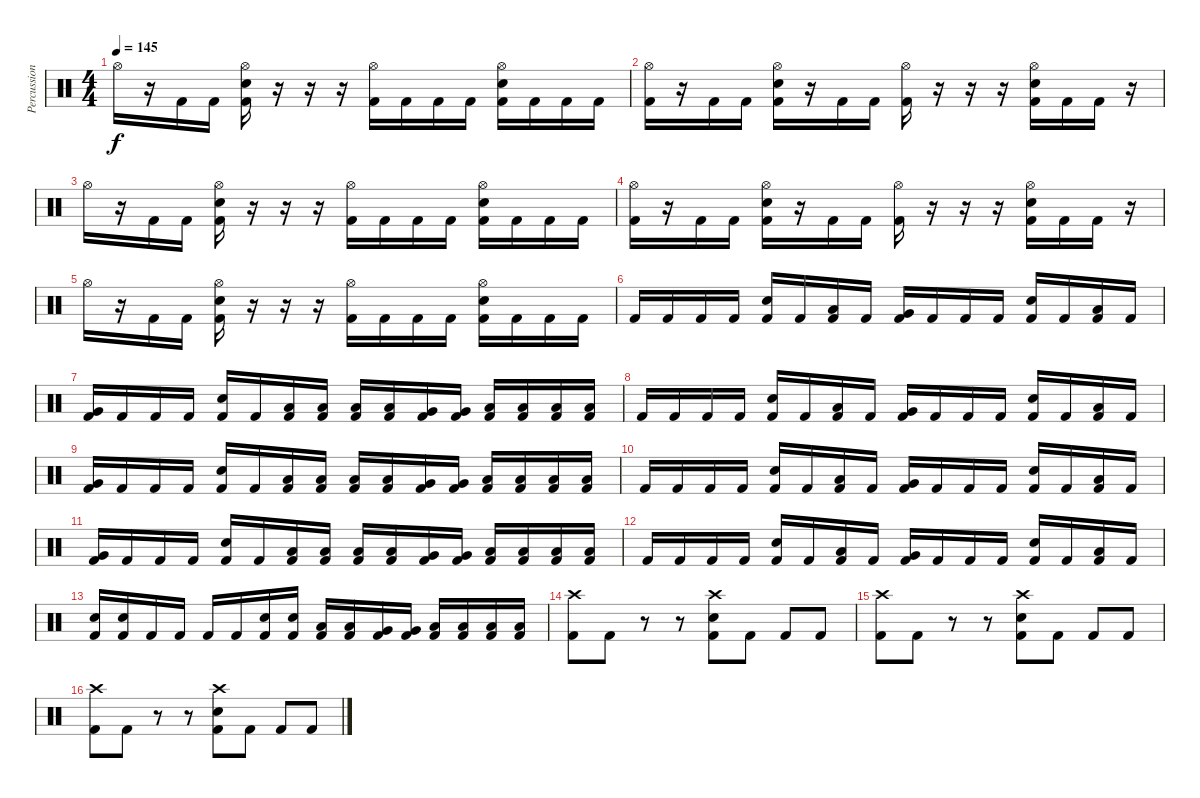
\track ("Percussion" "Percussion") {instrument percussion}
\staff {score}
\articulation defaults
\ts (4 4)
\tempo 145
\clef neutral
\ks c "Hi-Hat (open)".16{dy f}
r.16 "Kick (hit) 2".16 "Kick (hit) 2".16 ("Hi-Hat (open)" "Electric Snare (hit)" "Kick (hit) 2").16 r.16 r.16 r.16 ("Hi-Hat (open)" "Kick (hit) 2").16 "Kick (hit) 2".16 "Kick (hit) 2".16 "Kick (hit) 2".16 ("Hi-Hat (open)" "Electric Snare (hit)" "Kick (hit) 2").16 "Kick (hit) 2".16 "Kick (hit) 2".16 "Kick (hit) 2".16 |
("Hi-Hat (open)" "Kick (hit) 2").16 r.16 "Kick (hit) 2".16 "Kick (hit) 2".16 ("Hi-Hat (open)" "Electric Snare (hit)" "Kick (hit) 2").16 r.16 "Kick (hit) 2".16 "Kick (hit) 2".16 ("Hi-Hat (open)" "Kick (hit) 2").16 r.16 r.16 r.16 ("Hi-Hat (open)" "Electric Snare (hit)" "Kick (hit) 2").16 "Kick (hit) 2".16 "Kick (hit) 2".16 r.16 |
"Hi-Hat (open)".16 r.16 "Kick (hit) 2".16 "Kick (hit) 2".16 ("Hi-Hat (open)" "Electric Snare (hit)" "Kick (hit) 2").16 r.16 r.16 r.16 ("Hi-Hat (open)" "Kick (hit) 2").16 "Kick (hit) 2".16 "Kick (hit) 2".16 "Kick (hit) 2".16 ("Hi-Hat (open)" "Electric Snare (hit)" "Kick (hit) 2").16 "Kick (hit) 2".16 "Kick (hit) 2".16 "Kick (hit) 2".16 |
("Hi-Hat (open)" "Kick (hit) 2").16 r.16 "Kick (hit) 2".16 "Kick (hit) 2".16 ("Hi-Hat (open)" "Electric Snare (hit)" "Kick (hit) 2").16 r.16 "Kick (hit) 2".16 "Kick (hit) 2".16 ("Hi-Hat (open)" "Kick (hit) 2").16 r.16 r.16 r.16 ("Hi-Hat (open)" "Electric Snare (hit)" "Kick (hit) 2").16 "Kick (hit) 2".16 "Kick (hit) 2".16 r.16 |
"Hi-Hat (open)".16 r.16 "Kick (hit) 2".16 "Kick (hit) 2".16 ("Hi-Hat (open)" "Electric Snare (hit)" "Kick (hit) 2").16 r.16 r.16 r.16 ("Hi-Hat (open)" "Kick (hit) 2").16 "Kick (hit) 2".16 "Kick (hit) 2".16 "Kick (hit) 2".16 ("Hi-Hat (open)" "Electric Snare (hit)" "Kick (hit) 2").16 "Kick (hit) 2".16 "Kick (hit) 2".16 "Kick (hit) 2".16 |
"Kick (hit) 2".16 "Kick (hit) 2".16 "Kick (hit) 2".16 "Kick (hit) 2".16 ("Electric Snare (hit)" "Kick (hit) 2").16 "Kick (hit) 2".16 ("Low Tom (hit)" "Kick (hit) 2").16 "Kick (hit) 2".16 ("Very Low Tom (hit)" "Kick (hit) 2").16 "Kick (hit) 2".16 "Kick (hit) 2".16 "Kick (hit) 2".16 ("Electric Snare (hit)" "Kick (hit) 2").16 "Kick (hit) 2".16 ("Low Tom (hit)" "Kick (hit) 2").16 "Kick (hit) 2".16 |
("Very Low Tom (hit)" "Kick (hit) 2").16 "Kick (hit) 2".16 "Kick (hit) 2".16 "Kick (hit) 2".16 ("Electric Snare (hit)" "Kick (hit) 2").16 "Kick (hit) 2".16 ("Low Tom (hit)" "Kick (hit) 2").16 ("Low Tom (hit)" "Kick (hit) 2").16 ("Low Tom (hit)" "Kick (hit) 2").16 ("Low Tom (hit)" "Kick (hit) 2").16 ("Very Low Tom (hit)" "Kick (hit) 2").16 ("Very Low Tom (hit)" "Kick (hit) 2").16 ("Low Floor Tom (hit)" "Kick (hit) 2").16 ("Low Floor Tom (hit)" "Kick (hit) 2").16 ("Low Floor Tom (hit)" "Kick (hit) 2").16 ("Low Floor Tom (hit)" "Kick (hit) 2").16 |
"Kick (hit) 2".16 "Kick (hit) 2".16 "Kick (hit) 2".16 "Kick (hit) 2".16 ("Electric Snare (hit)" "Kick (hit) 2").16 "Kick (hit) 2".16 ("Low Tom (hit)" "Kick (hit) 2").16 "Kick (hit) 2".16 ("Very Low Tom (hit)" "Kick (hit) 2").16 "Kick (hit) 2".16 "Kick (hit) 2".16 "Kick (hit) 2".16 ("Electric Snare (hit)" "Kick (hit) 2").16 "Kick (hit) 2".16 ("Low Tom (hit)" "Kick (hit) 2").16 "Kick (hit) 2".16 |
("Very Low Tom (hit)" "Kick (hit) 2").16 "Kick (hit) 2".16 "Kick (hit) 2".16 "Kick (hit) 2".16 ("Electric Snare (hit)" "Kick (hit) 2").16 "Kick (hit) 2".16 ("Low Tom (hit)" "Kick (hit) 2").16 ("Low Tom (hit)" "Kick (hit) 2").16 ("Low Tom (hit)" "Kick (hit) 2").16 ("Low Tom (hit)" "Kick (hit) 2").16 ("Very Low Tom (hit)" "Kick (hit) 2").16 ("Very Low Tom (hit)" "Kick (hit) 2").16 ("Low Floor Tom (hit)" "Kick (hit) 2").16 ("Low Floor Tom (hit)" "Kick (hit) 2").16 ("Low Floor Tom (hit)" "Kick (hit) 2").16 ("Low Floor Tom (hit)" "Kick (hit) 2").16 |
"Kick (hit) 2".16 "Kick (hit) 2".16 "Kick (hit) 2".16 "Kick (hit) 2".16 ("Electric Snare (hit)" "Kick (hit) 2").16 "Kick (hit) 2".16 ("Low Tom (hit)" "Kick (hit) 2").16 "Kick (hit) 2".16 ("Very Low Tom (hit)" "Kick (hit) 2").16 "Kick (hit) 2".16 "Kick (hit) 2".16 "Kick (hit) 2".16 ("Electric Snare (hit)" "Kick (hit) 2").16 "Kick (hit) 2".16 ("Low Tom (hit)" "Kick (hit) 2").16 "Kick (hit) 2".16 |
("Very Low Tom (hit)" "Kick (hit) 2").16 "Kick (hit) 2".16 "Kick (hit) 2".16 "Kick (hit) 2".16 ("Electric Snare (hit)" "Kick (hit) 2").16 "Kick (hit) 2".16 ("Low Tom (hit)" "Kick (hit) 2").16 ("Low Tom (hit)" "Kick (hit) 2").16 ("Low Tom (hit)" "Kick (hit) 2").16 ("Low Tom (hit)" "Kick (hit) 2").16 ("Very Low Tom (hit)" "Kick (hit) 2").16 ("Very Low Tom (hit)" "Kick (hit) 2").16 ("Low Floor Tom (hit)" "Kick (hit) 2").16 ("Low Floor Tom (hit)" "Kick (hit) 2").16 ("Low Floor Tom (hit)" "Kick (hit) 2").16 ("Low Floor Tom (hit)" "Kick (hit) 2").16 |
"Kick (hit) 2".16 "Kick (hit) 2".16 "Kick (hit) 2".16 "Kick (hit) 2".16 ("Electric Snare (hit)" "Kick (hit) 2").16 "Kick (hit) 2".16 ("Low Tom (hit)" "Kick (hit) 2").16 "Kick (hit) 2".16 ("Very Low Tom (hit)" "Kick (hit) 2").16 "Kick (hit) 2".16 "Kick (hit) 2".16 "Kick (hit) 2".16 ("Electric Snare (hit)" "Kick (hit) 2").16 "Kick (hit) 2".16 ("Low Tom (hit)" "Kick (hit) 2").16 "Kick (hit) 2".16 |
("Electric Snare (hit)" "Kick (hit) 2").16 ("Electric Snare (hit)" "Kick (hit) 2").16 "Kick (hit) 2".16 "Kick (hit) 2".16 "Kick (hit) 2".16 "Kick (hit) 2".16 ("Electric Snare (hit)" "Kick (hit) 2").16 ("Electric Snare (hit)" "Kick (hit) 2").16 ("Low Tom (hit)" "Kick (hit) 2").16 ("Low Tom (hit)" "Kick (hit) 2").16 ("Very Low Tom (hit)" "Kick (hit) 2").16 ("Very Low Tom (hit)" "Kick (hit) 2").16 ("Low Floor Tom (hit)" "Kick (hit) 2").16 ("Low Floor Tom (hit)" "Kick (hit) 2").16 ("Low Floor Tom (hit)" "Kick (hit) 2").16 ("Low Floor Tom (hit)" "Kick (hit) 2").16 |
("Crash high (hit)" "Kick (hit) 2").8 "Kick (hit) 2".8 r.8 r.8 ("Crash high (hit)" "Electric Snare (hit)" "Kick (hit) 2").8 "Kick (hit) 2".8 "Kick (hit) 2".8 "Kick (hit) 2".8 |
("Crash high (hit)" "Kick (hit) 2").8 "Kick (hit) 2".8 r.8 r.8 ("Crash high (hit)" "Electric Snare (hit)" "Kick (hit) 2").8 "Kick (hit) 2".8 "Kick (hit) 2".8 "Kick (hit) 2".8 |
("Crash high (hit)" "Kick (hit) 2").8 "Kick (hit) 2".8 r.8 r.8 ("Crash high (hit)" "Electric Snare (hit)" "Kick (hit) 2").8 "Kick (hit) 2".8 "Kick (hit) 2".8 "Kick (hit) 2".8
